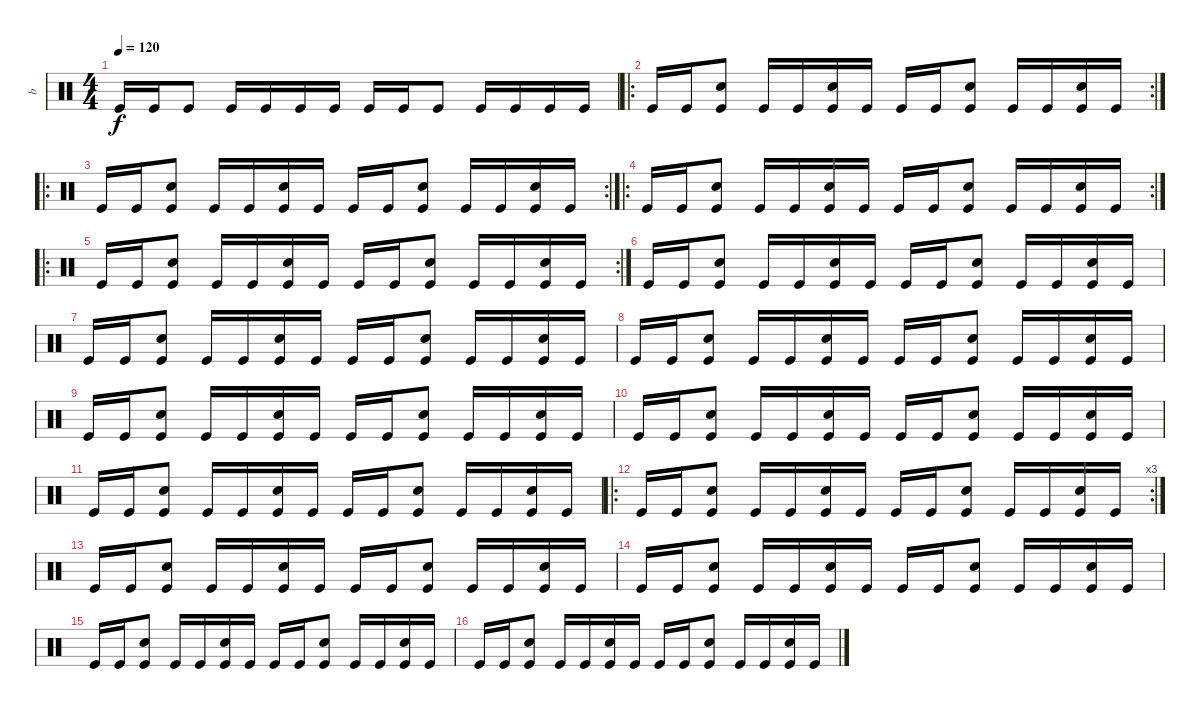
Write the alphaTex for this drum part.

\track ("b" "b") {instrument percussion}
\staff {score}
\articulation defaults
\ts (4 4)
\tempo 120
\clef neutral
\ks c "Kick (hit)".16{dy f} "Kick (hit)".16 "Kick (hit)".8 "Kick (hit)".16 "Kick (hit)".16 "Kick (hit)".16 "Kick (hit)".16 "Kick (hit)".16 "Kick (hit)".16 "Kick (hit)".8 "Kick (hit)".16 "Kick (hit)".16 "Kick (hit)".16 "Kick (hit)".16
|
\ro
\rc 2 "Kick (hit)".16 "Kick (hit)".16
("Electric Snare (hit)" "Kick (hit)").8 "Kick (hit)".16 "Kick (hit)".16 ("Electric Snare (hit)" "Kick (hit)").16 "Kick (hit)".16 "Kick (hit)".16 "Kick (hit)".16 ("Electric Snare (hit)" "Kick (hit)").8 "Kick (hit)".16 "Kick (hit)".16 ("Electric Snare (hit)" "Kick (hit)").16 "Kick (hit)".16 |
\ro
\rc 2 "Kick (hit)".16 "Kick (hit)".16
("Electric Snare (hit)" "Kick (hit)").8 "Kick (hit)".16 "Kick (hit)".16 ("Electric Snare (hit)" "Kick (hit)").16 "Kick (hit)".16 "Kick (hit)".16 "Kick (hit)".16 ("Electric Snare (hit)" "Kick (hit)").8 "Kick (hit)".16 "Kick (hit)".16 ("Electric Snare (hit)" "Kick (hit)").16 "Kick (hit)".16 |
\ro
\rc 2 "Kick (hit)".16 "Kick (hit)".16
("Electric Snare (hit)" "Kick (hit)").8 "Kick (hit)".16 "Kick (hit)".16 ("Electric Snare (hit)" "Kick (hit)").16 "Kick (hit)".16 "Kick (hit)".16 "Kick (hit)".16 ("Electric Snare (hit)" "Kick (hit)").8 "Kick (hit)".16 "Kick (hit)".16 ("Electric Snare (hit)" "Kick (hit)").16 "Kick (hit)".16 |
\ro
\rc 2 "Kick (hit)".16 "Kick (hit)".16
("Electric Snare (hit)" "Kick (hit)").8 "Kick (hit)".16 "Kick (hit)".16 ("Electric Snare (hit)" "Kick (hit)").16 "Kick (hit)".16 "Kick (hit)".16 "Kick (hit)".16 ("Electric Snare (hit)" "Kick (hit)").8 "Kick (hit)".16 "Kick (hit)".16 ("Electric Snare (hit)" "Kick (hit)").16 "Kick (hit)".16 |
"Kick (hit)".16 "Kick (hit)".16 ("Electric Snare (hit)" "Kick (hit)").8 "Kick (hit)".16 "Kick (hit)".16 ("Electric Snare (hit)" "Kick (hit)").16 "Kick (hit)".16 "Kick (hit)".16 "Kick (hit)".16 ("Electric Snare (hit)" "Kick (hit)").8 "Kick (hit)".16 "Kick (hit)".16 ("Electric Snare (hit)" "Kick (hit)").16 "Kick (hit)".16 |
"Kick (hit)".16 "Kick (hit)".16 ("Electric Snare (hit)" "Kick (hit)").8 "Kick (hit)".16 "Kick (hit)".16 ("Electric Snare (hit)" "Kick (hit)").16 "Kick (hit)".16 "Kick (hit)".16 "Kick (hit)".16 ("Electric Snare (hit)" "Kick (hit)").8 "Kick (hit)".16 "Kick (hit)".16 ("Electric Snare (hit)" "Kick (hit)").16 "Kick (hit)".16 |
"Kick (hit)".16 "Kick (hit)".16 ("Electric Snare (hit)" "Kick (hit)").8 "Kick (hit)".16 "Kick (hit)".16 ("Electric Snare (hit)" "Kick (hit)").16 "Kick (hit)".16 "Kick (hit)".16 "Kick (hit)".16 ("Electric Snare (hit)" "Kick (hit)").8 "Kick (hit)".16 "Kick (hit)".16 ("Electric Snare (hit)" "Kick (hit)").16 "Kick (hit)".16 |
"Kick (hit)".16 "Kick (hit)".16 ("Electric Snare (hit)" "Kick (hit)").8 "Kick (hit)".16 "Kick (hit)".16 ("Electric Snare (hit)" "Kick (hit)").16 "Kick (hit)".16 "Kick (hit)".16 "Kick (hit)".16 ("Electric Snare (hit)" "Kick (hit)").8 "Kick (hit)".16 "Kick (hit)".16 ("Electric Snare (hit)" "Kick (hit)").16 "Kick (hit)".16 |
"Kick (hit)".16 "Kick (hit)".16 ("Electric Snare (hit)" "Kick (hit)").8 "Kick (hit)".16 "Kick (hit)".16 ("Electric Snare (hit)" "Kick (hit)").16 "Kick (hit)".16 "Kick (hit)".16 "Kick (hit)".16 ("Electric Snare (hit)" "Kick (hit)").8 "Kick (hit)".16 "Kick (hit)".16 ("Electric Snare (hit)" "Kick (hit)").16 "Kick (hit)".16 |
"Kick (hit)".16 "Kick (hit)".16 ("Electric Snare (hit)" "Kick (hit)").8 "Kick (hit)".16 "Kick (hit)".16 ("Electric Snare (hit)" "Kick (hit)").16 "Kick (hit)".16 "Kick (hit)".16 "Kick (hit)".16 ("Electric Snare (hit)" "Kick (hit)").8 "Kick (hit)".16 "Kick (hit)".16 ("Electric Snare (hit)" "Kick (hit)").16 "Kick (hit)".16 |
\ro
\rc 3 "Kick (hit)".16 "Kick (hit)".16
("Electric Snare (hit)" "Kick (hit)").8 "Kick (hit)".16 "Kick (hit)".16 ("Electric Snare (hit)" "Kick (hit)").16 "Kick (hit)".16 "Kick (hit)".16 "Kick (hit)".16 ("Electric Snare (hit)" "Kick (hit)").8 "Kick (hit)".16 "Kick (hit)".16 ("Electric Snare (hit)" "Kick (hit)").16 "Kick (hit)".16 |
"Kick (hit)".16 "Kick (hit)".16 ("Electric Snare (hit)" "Kick (hit)").8 "Kick (hit)".16 "Kick (hit)".16 ("Electric Snare (hit)" "Kick (hit)").16 "Kick (hit)".16 "Kick (hit)".16 "Kick (hit)".16 ("Electric Snare (hit)" "Kick (hit)").8 "Kick (hit)".16 "Kick (hit)".16 ("Electric Snare (hit)" "Kick (hit)").16 "Kick (hit)".16 |
"Kick (hit)".16 "Kick (hit)".16 ("Electric Snare (hit)" "Kick (hit)").8 "Kick (hit)".16 "Kick (hit)".16 ("Electric Snare (hit)" "Kick (hit)").16 "Kick (hit)".16 "Kick (hit)".16 "Kick (hit)".16 ("Electric Snare (hit)" "Kick (hit)").8 "Kick (hit)".16 "Kick (hit)".16 ("Electric Snare (hit)" "Kick (hit)").16 "Kick (hit)".16 |
"Kick (hit)".16 "Kick (hit)".16 ("Electric Snare (hit)" "Kick (hit)").8 "Kick (hit)".16 "Kick (hit)".16 ("Electric Snare (hit)" "Kick (hit)").16 "Kick (hit)".16 "Kick (hit)".16 "Kick (hit)".16 ("Electric Snare (hit)" "Kick (hit)").8 "Kick (hit)".16 "Kick (hit)".16 ("Electric Snare (hit)" "Kick (hit)").16 "Kick (hit)".16 |
"Kick (hit)".16 "Kick (hit)".16 ("Electric Snare (hit)" "Kick (hit)").8 "Kick (hit)".16 "Kick (hit)".16 ("Electric Snare (hit)" "Kick (hit)").16 "Kick (hit)".16 "Kick (hit)".16 "Kick (hit)".16 ("Electric Snare (hit)" "Kick (hit)").8 "Kick (hit)".16 "Kick (hit)".16 ("Electric Snare (hit)" "Kick (hit)").16 "Kick (hit)".16
